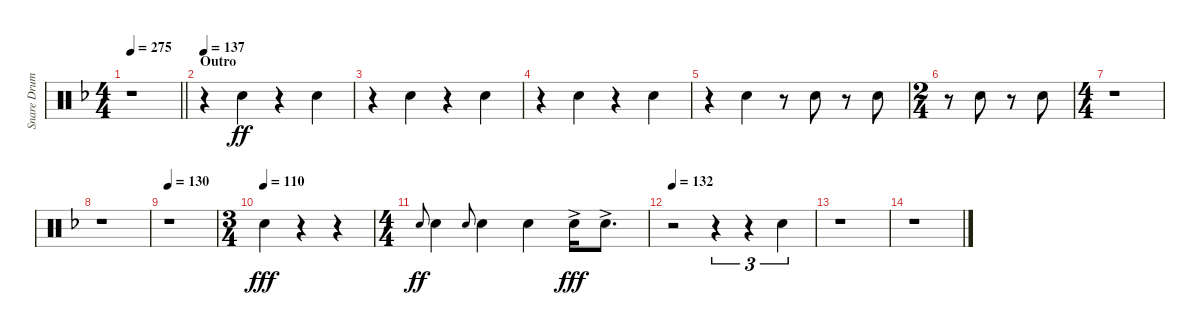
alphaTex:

\track ("Snare Drum" "Snare Drum") {instrument percussion}
\staff {score}
\articulation defaults
\ts (4 4)
\tempo 275
\clef neutral
\barLineRight lightlight
\ks dminor
r.1{dy ff} |
\section ("" "Outro")
\tempo 137
r.4 "Electric Snare (hit)".4 r.4 "Electric Snare (hit)".4 |
r.4 "Electric Snare (hit)".4 r.4 "Electric Snare (hit)".4 |
r.4 "Electric Snare (hit)".4 r.4 "Electric Snare (hit)".4 |
r.4 "Electric Snare (hit)".4 r.8 "Electric Snare (hit)".8 r.8 "Electric Snare (hit)".8 |
\ts (2 4)
r.8 "Electric Snare (hit)".8 r.8 "Electric Snare (hit)".8 |
\ts (4 4)
r.1 |
r.1 |
\tempo 130
r.1 |
\ts (3 4)
\tempo (110)
"Electric Snare (hit)".4{dy fff} r.4 r.4 |
\ts (4 4)
"Electric Snare (hit)".8{gr onbeat dy ff} "Electric Snare (hit)".4 "Electric Snare (hit)".8{gr onbeat} "Electric Snare (hit)".4 "Electric Snare (hit)".4 "Electric Snare (hit)"{ac}.16{dy fff} "Electric Snare (hit)"{ac}.8{d} |
\tempo 132
r.2 r.4{tu (3 2)} r.4{tu (3 2)} "Electric Snare (hit)".4{tu (3 2)} |
r.1 |
r.1
